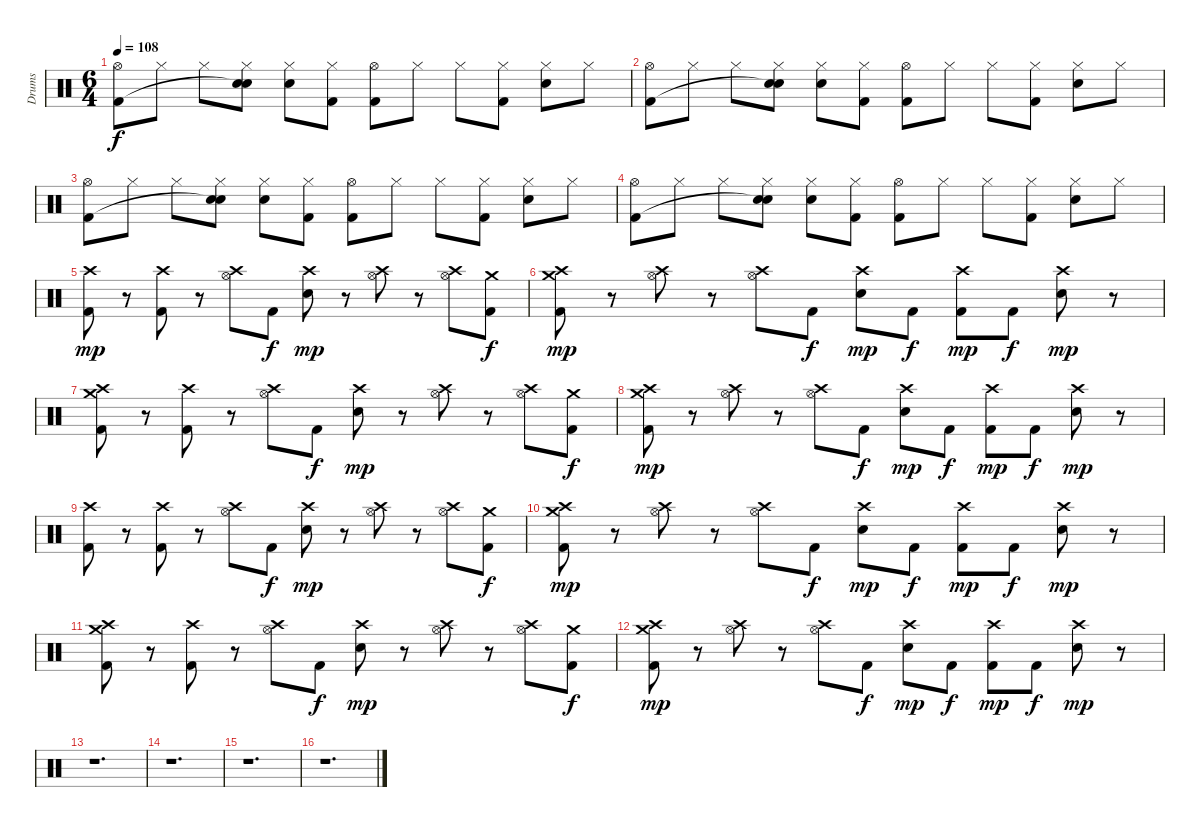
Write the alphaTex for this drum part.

\track ("Drums" "Drums") {instrument percussion}
\staff {score}
\articulation defaults
\ts (6 4)
\tempo 108
\clef neutral
\ks c
("Hi-Hat (open)" "Kick (hit) 2").8{dy f} "Hi-Hat (closed)".8 "Hi-Hat (closed)".8 ("Hi-Hat (closed)" "Snare (hit)"{t} "Snare (hit) 2").8 ("Hi-Hat (closed)" "Snare (hit) 2").8 ("Hi-Hat (closed)" "Kick (hit) 2").8 ("Hi-Hat (open)" "Kick (hit) 2").8 "Hi-Hat (closed)".8 "Hi-Hat (closed)".8 ("Hi-Hat (closed)" "Kick (hit) 2").8 ("Hi-Hat (closed)" "Snare (hit) 2").8 "Hi-Hat (closed)".8 |
("Hi-Hat (open)" "Kick (hit) 2").8 "Hi-Hat (closed)".8 "Hi-Hat (closed)".8 ("Hi-Hat (closed)" "Snare (hit)"{t} "Snare (hit) 2").8 ("Hi-Hat (closed)" "Snare (hit) 2").8 ("Hi-Hat (closed)" "Kick (hit) 2").8 ("Hi-Hat (open)" "Kick (hit) 2").8 "Hi-Hat (closed)".8 "Hi-Hat (closed)".8 ("Hi-Hat (closed)" "Kick (hit) 2").8 ("Hi-Hat (closed)" "Snare (hit) 2").8 "Hi-Hat (closed)".8 |
("Hi-Hat (open)" "Kick (hit) 2").8 "Hi-Hat (closed)".8 "Hi-Hat (closed)".8 ("Hi-Hat (closed)" "Snare (hit)"{t} "Snare (hit) 2").8 ("Hi-Hat (closed)" "Snare (hit) 2").8 ("Hi-Hat (closed)" "Kick (hit) 2").8 ("Hi-Hat (open)" "Kick (hit) 2").8 "Hi-Hat (closed)".8 "Hi-Hat (closed)".8 ("Hi-Hat (closed)" "Kick (hit) 2").8 ("Hi-Hat (closed)" "Snare (hit) 2").8 "Hi-Hat (closed)".8 |
("Hi-Hat (open)" "Kick (hit) 2").8 "Hi-Hat (closed)".8 "Hi-Hat (closed)".8 ("Hi-Hat (closed)" "Snare (hit)"{t} "Snare (hit) 2").8 ("Hi-Hat (closed)" "Snare (hit) 2").8 ("Hi-Hat (closed)" "Kick (hit) 2").8 ("Hi-Hat (open)" "Kick (hit) 2").8 "Hi-Hat (closed)".8 "Hi-Hat (closed)".8 ("Hi-Hat (closed)" "Kick (hit) 2").8 ("Hi-Hat (closed)" "Snare (hit) 2").8 "Hi-Hat (closed)".8 |
("Crash high (hit)" "Kick (hit) 2").8{dy mp} r.8 ("Crash high (hit)" "Kick (hit) 2").8 r.8 ("Crash high (hit)" "Hi-Hat (open)").8 "Kick (hit) 2".8{dy f} ("Crash high (hit)" "Snare (hit) 2").8{dy mp} r.8 ("Crash high (hit)" "Hi-Hat (open)").8 r.8 ("Crash high (hit)" "Hi-Hat (open)").8 ("Crash medium (hit)" "Kick (hit) 2").8{dy f} |
("Crash high (hit)" "Crash medium (hit)" "Kick (hit) 2").8{dy mp} r.8 ("Crash high (hit)" "Hi-Hat (open)").8 r.8 ("Crash high (hit)" "Hi-Hat (open)").8 "Kick (hit) 2".8{dy f} ("Crash high (hit)" "Snare (hit) 2").8{dy mp} "Kick (hit) 2".8{dy f} ("Crash high (hit)" "Kick (hit) 2").8{dy mp} "Kick (hit) 2".8{dy f} ("Crash high (hit)" "Snare (hit) 2").8{dy mp} r.8 |
("Crash high (hit)" "Crash medium (hit)" "Kick (hit) 2").8 r.8 ("Crash high (hit)" "Kick (hit) 2").8 r.8 ("Crash high (hit)" "Hi-Hat (open)").8 "Kick (hit) 2".8{dy f} ("Crash high (hit)" "Snare (hit) 2").8{dy mp} r.8 ("Crash high (hit)" "Hi-Hat (open)").8 r.8 ("Crash high (hit)" "Hi-Hat (open)").8 ("Crash medium (hit)" "Kick (hit) 2").8{dy f} |
("Crash high (hit)" "Crash medium (hit)" "Kick (hit) 2").8{dy mp} r.8 ("Crash high (hit)" "Hi-Hat (open)").8 r.8 ("Crash high (hit)" "Hi-Hat (open)").8 "Kick (hit) 2".8{dy f} ("Crash high (hit)" "Snare (hit) 2").8{dy mp} "Kick (hit) 2".8{dy f} ("Crash high (hit)" "Kick (hit) 2").8{dy mp} "Kick (hit) 2".8{dy f} ("Crash high (hit)" "Snare (hit) 2").8{dy mp} r.8 |
("Crash high (hit)" "Kick (hit) 2").8 r.8 ("Crash high (hit)" "Kick (hit) 2").8 r.8 ("Crash high (hit)" "Hi-Hat (open)").8 "Kick (hit) 2".8{dy f} ("Crash high (hit)" "Snare (hit) 2").8{dy mp} r.8 ("Crash high (hit)" "Hi-Hat (open)").8 r.8 ("Crash high (hit)" "Hi-Hat (open)").8 ("Crash medium (hit)" "Kick (hit) 2").8{dy f} |
("Crash high (hit)" "Crash medium (hit)" "Kick (hit) 2").8{dy mp} r.8 ("Crash high (hit)" "Hi-Hat (open)").8 r.8 ("Crash high (hit)" "Hi-Hat (open)").8 "Kick (hit) 2".8{dy f} ("Crash high (hit)" "Snare (hit) 2").8{dy mp} "Kick (hit) 2".8{dy f} ("Crash high (hit)" "Kick (hit) 2").8{dy mp} "Kick (hit) 2".8{dy f} ("Crash high (hit)" "Snare (hit) 2").8{dy mp} r.8 |
("Crash high (hit)" "Crash medium (hit)" "Kick (hit) 2").8 r.8 ("Crash high (hit)" "Kick (hit) 2").8 r.8 ("Crash high (hit)" "Hi-Hat (open)").8 "Kick (hit) 2".8{dy f} ("Crash high (hit)" "Snare (hit) 2").8{dy mp} r.8 ("Crash high (hit)" "Hi-Hat (open)").8 r.8 ("Crash high (hit)" "Hi-Hat (open)").8 ("Crash medium (hit)" "Kick (hit) 2").8{dy f} |
("Crash high (hit)" "Crash medium (hit)" "Kick (hit) 2").8{dy mp} r.8 ("Crash high (hit)" "Hi-Hat (open)").8 r.8 ("Crash high (hit)" "Hi-Hat (open)").8 "Kick (hit) 2".8{dy f} ("Crash high (hit)" "Snare (hit) 2").8{dy mp} "Kick (hit) 2".8{dy f} ("Crash high (hit)" "Kick (hit) 2").8{dy mp} "Kick (hit) 2".8{dy f} ("Crash high (hit)" "Snare (hit) 2").8{dy mp} r.8 |
r.1{d} |
r.1{d} |
r.1{d} |
r.1{d}
